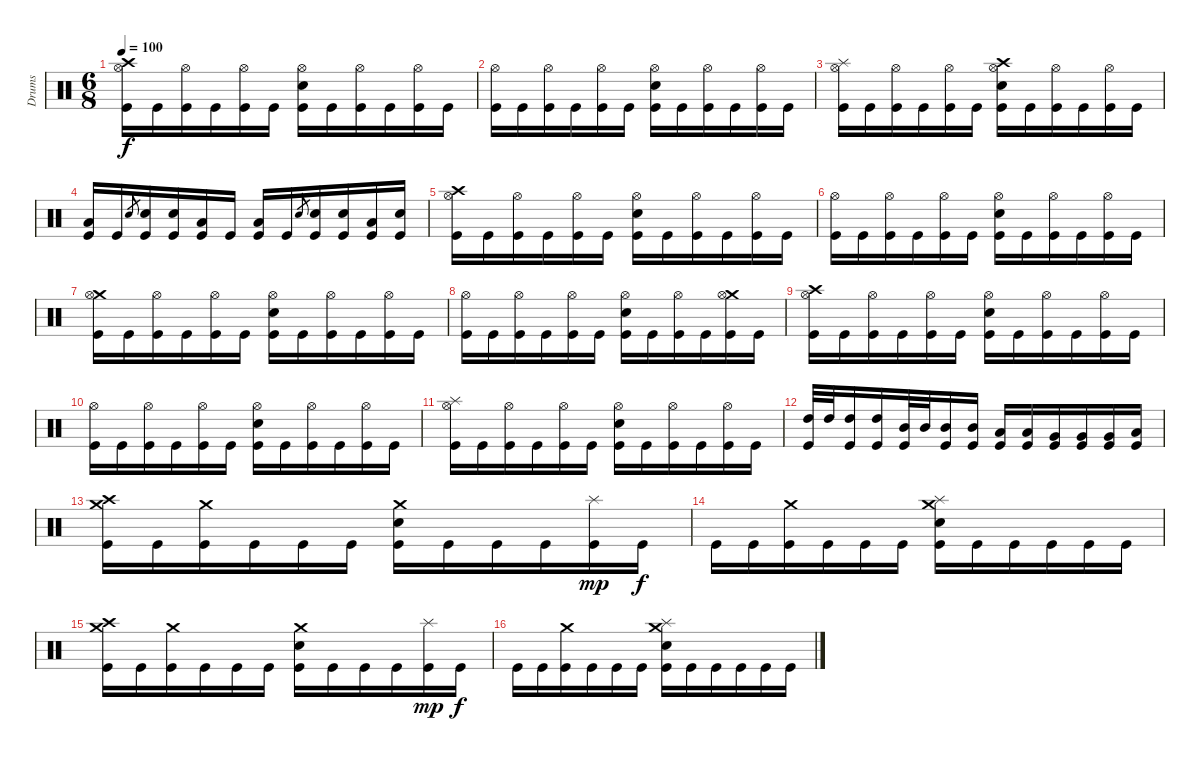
\track ("Drums" "Drums") {instrument percussion}
\staff {score}
\articulation defaults
\ts (6 8)
\tempo 100
\clef neutral
\ks c
("Crash high (hit)" "Hi-Hat (open)" "Kick (hit)").16{dy f} "Kick (hit)".16 ("Hi-Hat (open)" "Kick (hit)").16 "Kick (hit)".16 ("Hi-Hat (open)" "Kick (hit)").16 "Kick (hit)".16 ("Hi-Hat (open)" "Electric Snare (hit)" "Kick (hit)").16 "Kick (hit)".16 ("Hi-Hat (open)" "Kick (hit)").16 "Kick (hit)".16 ("Hi-Hat (open)" "Kick (hit)").16 "Kick (hit)".16 |
("Hi-Hat (open)" "Kick (hit)").16 "Kick (hit)".16 ("Hi-Hat (open)" "Kick (hit)").16 "Kick (hit)".16 ("Hi-Hat (open)" "Kick (hit)").16 "Kick (hit)".16 ("Hi-Hat (open)" "Electric Snare (hit)" "Kick (hit)").16 "Kick (hit)".16 ("Hi-Hat (open)" "Kick (hit)").16 "Kick (hit)".16 ("Hi-Hat (open)" "Kick (hit)").16 "Kick (hit)".16 |
("Splash (hit)" "Hi-Hat (open)" "Kick (hit)").16 "Kick (hit)".16 ("Hi-Hat (open)" "Kick (hit)").16 "Kick (hit)".16 ("Hi-Hat (open)" "Kick (hit)").16 "Kick (hit)".16 ("Crash high (hit)" "Hi-Hat (open)" "Electric Snare (hit)" "Kick (hit)").16 "Kick (hit)".16 ("Hi-Hat (open)" "Kick (hit)").16 "Kick (hit)".16 ("Hi-Hat (open)" "Kick (hit)").16 "Kick (hit)".16 |
("Low Floor Tom (hit)" "Kick (hit)").16 "Kick (hit)".16 "Electric Snare (hit)".8{gr} ("Electric Snare (hit)" "Kick (hit)").16 ("Electric Snare (hit)" "Kick (hit)").16 ("Low Floor Tom (hit)" "Kick (hit)").16 "Kick (hit)".16 ("Low Floor Tom (hit)" "Kick (hit)").16 "Kick (hit)".16 "Electric Snare (hit)".8{gr} ("Electric Snare (hit)" "Kick (hit)").16 ("Electric Snare (hit)" "Kick (hit)").16 ("Low Floor Tom (hit)" "Kick (hit)").16 ("Electric Snare (hit)" "Kick (hit)").16 |
("Crash high (hit)" "Hi-Hat (open)" "Kick (hit)").16 "Kick (hit)".16 ("Hi-Hat (open)" "Kick (hit)").16 "Kick (hit)".16 ("Hi-Hat (open)" "Kick (hit)").16 "Kick (hit)".16 ("Hi-Hat (open)" "Electric Snare (hit)" "Kick (hit)").16 "Kick (hit)".16 ("Hi-Hat (open)" "Kick (hit)").16 "Kick (hit)".16 ("Hi-Hat (open)" "Kick (hit)").16 "Kick (hit)".16 |
("Hi-Hat (open)" "Kick (hit)").16 "Kick (hit)".16 ("Hi-Hat (open)" "Kick (hit)").16 "Kick (hit)".16 ("Hi-Hat (open)" "Kick (hit)").16 "Kick (hit)".16 ("Hi-Hat (open)" "Electric Snare (hit)" "Kick (hit)").16 "Kick (hit)".16 ("Hi-Hat (open)" "Kick (hit)").16 "Kick (hit)".16 ("Hi-Hat (open)" "Kick (hit)").16 "Kick (hit)".16 |
("Crash medium (hit)" "Hi-Hat (open)" "Kick (hit)").16 "Kick (hit)".16 ("Hi-Hat (open)" "Kick (hit)").16 "Kick (hit)".16 ("Hi-Hat (open)" "Kick (hit)").16 "Kick (hit)".16 ("Hi-Hat (open)" "Electric Snare (hit)" "Kick (hit)").16 "Kick (hit)".16 ("Hi-Hat (open)" "Kick (hit)").16 "Kick (hit)".16 ("Hi-Hat (open)" "Kick (hit)").16 "Kick (hit)".16 |
("Hi-Hat (open)" "Kick (hit)").16 "Kick (hit)".16 ("Hi-Hat (open)" "Kick (hit)").16 "Kick (hit)".16 ("Hi-Hat (open)" "Kick (hit)").16 "Kick (hit)".16 ("Hi-Hat (open)" "Electric Snare (hit)" "Kick (hit)").16 "Kick (hit)".16 ("Hi-Hat (open)" "Kick (hit)").16 "Kick (hit)".16 ("Crash medium (hit)" "Hi-Hat (open)" "Kick (hit)").16 "Kick (hit)".16 |
("Crash high (hit)" "Hi-Hat (open)" "Kick (hit)").16 "Kick (hit)".16 ("Hi-Hat (open)" "Kick (hit)").16 "Kick (hit)".16 ("Hi-Hat (open)" "Kick (hit)").16 "Kick (hit)".16 ("Hi-Hat (open)" "Electric Snare (hit)" "Kick (hit)").16 "Kick (hit)".16 ("Hi-Hat (open)" "Kick (hit)").16 "Kick (hit)".16 ("Hi-Hat (open)" "Kick (hit)").16 "Kick (hit)".16 |
("Hi-Hat (open)" "Kick (hit)").16 "Kick (hit)".16 ("Hi-Hat (open)" "Kick (hit)").16 "Kick (hit)".16 ("Hi-Hat (open)" "Kick (hit)").16 "Kick (hit)".16 ("Hi-Hat (open)" "Electric Snare (hit)" "Kick (hit)").16 "Kick (hit)".16 ("Hi-Hat (open)" "Kick (hit)").16 "Kick (hit)".16 ("Hi-Hat (open)" "Kick (hit)").16 "Kick (hit)".16 |
("Splash (hit)" "Hi-Hat (open)" "Kick (hit)").16 "Kick (hit)".16 ("Hi-Hat (open)" "Kick (hit)").16 "Kick (hit)".16 ("Hi-Hat (open)" "Kick (hit)").16 "Kick (hit)".16 ("Hi-Hat (open)" "Electric Snare (hit)" "Kick (hit)").16 "Kick (hit)".16 ("Hi-Hat (open)" "Kick (hit)").16 "Kick (hit)".16 ("Hi-Hat (open)" "Kick (hit)").16 "Kick (hit)".16 |
("High Tom (hit)" "Kick (hit)").32 "High Tom (hit)".32 ("High Tom (hit)" "Kick (hit)").16 ("High Tom (hit)" "Kick (hit)").16 ("Mid Tom (hit)" "Kick (hit)").32 "Mid Tom (hit)".32 ("Mid Tom (hit)" "Kick (hit)").16 ("Mid Tom (hit)" "Kick (hit)").16 ("Low Tom (hit)" "Kick (hit)").16 ("Low Tom (hit)" "Kick (hit)").16 ("Very Low Tom (hit)" "Kick (hit)").16 ("Very Low Tom (hit)" "Kick (hit)").16 ("Very Low Tom (hit)" "Kick (hit)").16 ("Low Floor Tom (hit)" "Kick (hit)").16 |
("Crash high (hit)" "Crash medium (hit)" "Kick (hit)").16 "Kick (hit)".16 ("Crash medium (hit)" "Kick (hit)").16 "Kick (hit)".16 "Kick (hit)".16 "Kick (hit)".16 ("Crash medium (hit)" "Electric Snare (hit)" "Kick (hit)").16 "Kick (hit)".16 "Kick (hit)".16 "Kick (hit)".16 ("Splash (hit)" "Kick (hit)").16{dy mp} "Kick (hit)".16{dy f} |
"Kick (hit)".16 "Kick (hit)".16 ("Crash medium (hit)" "Kick (hit)").16 "Kick (hit)".16 "Kick (hit)".16 "Kick (hit)".16 ("Splash (hit)" "Crash medium (hit)" "Electric Snare (hit)" "Kick (hit)").16 "Kick (hit)".16 "Kick (hit)".16 "Kick (hit)".16 "Kick (hit)".16 "Kick (hit)".16 |
("Crash high (hit)" "Crash medium (hit)" "Kick (hit)").16 "Kick (hit)".16 ("Crash medium (hit)" "Kick (hit)").16 "Kick (hit)".16 "Kick (hit)".16 "Kick (hit)".16 ("Crash medium (hit)" "Electric Snare (hit)" "Kick (hit)").16 "Kick (hit)".16 "Kick (hit)".16 "Kick (hit)".16 ("Splash (hit)" "Kick (hit)").16{dy mp} "Kick (hit)".16{dy f} |
"Kick (hit)".16 "Kick (hit)".16 ("Crash medium (hit)" "Kick (hit)").16 "Kick (hit)".16 "Kick (hit)".16 "Kick (hit)".16 ("Splash (hit)" "Crash medium (hit)" "Electric Snare (hit)" "Kick (hit)").16 "Kick (hit)".16 "Kick (hit)".16 "Kick (hit)".16 "Kick (hit)".16 "Kick (hit)".16
